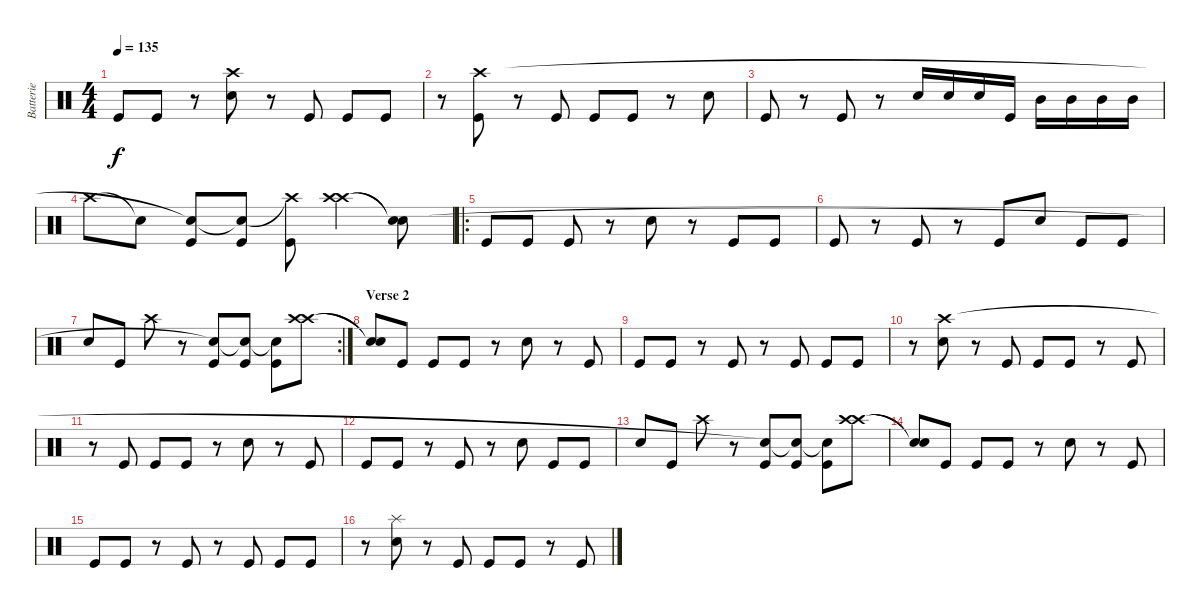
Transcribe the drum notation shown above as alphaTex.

\track ("Batterie" "Batterie") {instrument percussion}
\staff {score}
\articulation defaults
\ts (4 4)
\tempo 135
\clef neutral
\ks c "Kick (hit)".8{dy f} "Kick (hit)".8
r.8 ("Electric Snare (hit)" "Crash high (hit)").8 r.8 "Kick (hit)".8 "Kick (hit)".8 "Kick (hit)".8 |
r.8 ("Kick (hit)" "Crash high (hit)").8 r.8 "Kick (hit)".8 "Kick (hit)".8 "Kick (hit)".8 r.8 "Electric Snare (hit)".8 |
"Kick (hit)".8 r.8 "Kick (hit)".8 r.8 "Electric Snare (hit)".16 "Electric Snare (hit)".16 "Electric Snare (hit)".16 "Kick (hit)".16 "Mid Tom (hit)".16 "Mid Tom (hit)".16 "Mid Tom (hit)".16 "Mid Tom (hit)".16 |
"Crash high (hit)".8 "Snare (hit)"{t}.8 ("Kick (hit)" "Snare (hit)"{t}).8 ("Kick (hit)" "Snare (hit)"{t}).8 ("Kick (hit)" "Crash high (hit)"{t}).8 ("Crash high (hit)" "Crash high (hit)").4 ("Snare (hit)"{t} "Snare (hit)"{t}).8 |
\ro "Kick (hit)".8 "Kick (hit)".8 "Kick (hit)".8
r.8 "Electric Snare (hit)".8 r.8 "Kick (hit)".8 "Kick (hit)".8 |
"Kick (hit)".8 r.8 "Kick (hit)".8 r.8 "Kick (hit)".8 "Electric Snare (hit)".8 "Kick (hit)".8 "Kick (hit)".8 |
\rc 2 "Electric Snare (hit)".8 "Kick (hit)".8 "Crash high (hit)".8
r.8 ("Kick (hit)" "Snare (hit)"{t}).8 ("Kick (hit)" "Snare (hit)"{t}).8 ("Kick (hit)" "Snare (hit)"{t}).8 ("Crash high (hit)" "Crash high (hit)").8 |
\section ("" "Verse 2 ")
("Snare (hit)"{t} "Snare (hit)"{t}).8 "Kick (hit)".8 "Kick (hit)".8 "Kick (hit)".8 r.8 "Electric Snare (hit)".8 r.8 "Kick (hit)".8 |
"Kick (hit)".8 "Kick (hit)".8 r.8 "Kick (hit)".8 r.8 "Kick (hit)".8 "Kick (hit)".8 "Kick (hit)".8 |
r.8 ("Electric Snare (hit)" "Crash high (hit)").8 r.8 "Kick (hit)".8 "Kick (hit)".8 "Kick (hit)".8 r.8 "Kick (hit)".8 |
r.8 "Kick (hit)".8 "Kick (hit)".8 "Kick (hit)".8 r.8 "Electric Snare (hit)".8 r.8 "Kick (hit)".8 |
"Kick (hit)".8 "Kick (hit)".8 r.8 "Kick (hit)".8 r.8 "Electric Snare (hit)".8 "Kick (hit)".8 "Kick (hit)".8 |
"Electric Snare (hit)".8 "Kick (hit)".8 "Crash high (hit)".8 r.8 ("Kick (hit)" "Snare (hit)"{t}).8 ("Kick (hit)" "Snare (hit)"{t}).8 ("Kick (hit)" "Snare (hit)"{t}).8 ("Crash high (hit)" "Crash high (hit)").8 |
("Snare (hit)"{t} "Snare (hit)"{t}).8 "Kick (hit)".8 "Kick (hit)".8 "Kick (hit)".8 r.8 "Electric Snare (hit)".8 r.8 "Kick (hit)".8 |
"Kick (hit)".8 "Kick (hit)".8 r.8 "Kick (hit)".8 r.8 "Kick (hit)".8 "Kick (hit)".8 "Kick (hit)".8 |
r.8 ("Electric Snare (hit)" "Splash (hit)").8 r.8 "Kick (hit)".8 "Kick (hit)".8 "Kick (hit)".8 r.8 "Kick (hit)".8
